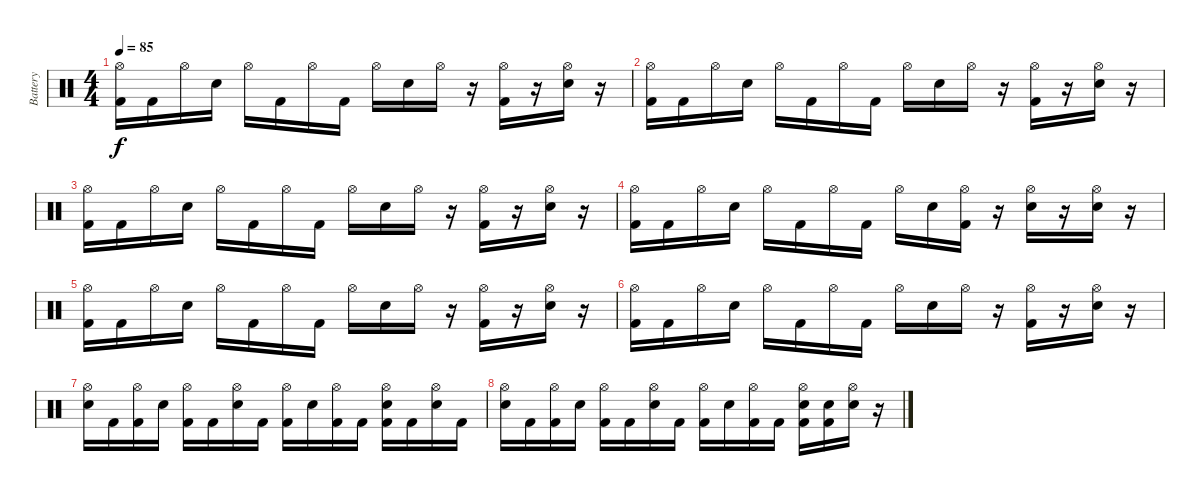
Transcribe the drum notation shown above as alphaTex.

\track ("Battery" "Battery") {instrument percussion}
\staff {score}
\articulation defaults
\ts (4 4)
\tempo 85
\clef neutral
\ks c
("Hi-Hat (open)" "Kick (hit) 2").16{dy f} "Kick (hit) 2".16 "Hi-Hat (open)".16 "Snare (hit) 2".16 "Hi-Hat (open)".16 "Kick (hit) 2".16 "Hi-Hat (open)".16 "Kick (hit) 2".16 "Hi-Hat (open)".16 "Snare (hit) 2".16 "Hi-Hat (open)".16 r.16 ("Hi-Hat (open)" "Kick (hit) 2").16 r.16 ("Snare (hit) 2" "Hi-Hat (open)").16 r.16 |
("Hi-Hat (open)" "Kick (hit) 2").16 "Kick (hit) 2".16 "Hi-Hat (open)".16 "Snare (hit) 2".16 "Hi-Hat (open)".16 "Kick (hit) 2".16 "Hi-Hat (open)".16 "Kick (hit) 2".16 "Hi-Hat (open)".16 "Snare (hit) 2".16 "Hi-Hat (open)".16 r.16 ("Hi-Hat (open)" "Kick (hit) 2").16 r.16 ("Snare (hit) 2" "Hi-Hat (open)").16 r.16 |
("Hi-Hat (open)" "Kick (hit) 2").16 "Kick (hit) 2".16 "Hi-Hat (open)".16 "Snare (hit) 2".16 "Hi-Hat (open)".16 "Kick (hit) 2".16 "Hi-Hat (open)".16 "Kick (hit) 2".16 "Hi-Hat (open)".16 "Snare (hit) 2".16 "Hi-Hat (open)".16 r.16 ("Hi-Hat (open)" "Kick (hit) 2").16 r.16 ("Snare (hit) 2" "Hi-Hat (open)").16 r.16 |
("Hi-Hat (open)" "Kick (hit) 2").16 "Kick (hit) 2".16 "Hi-Hat (open)".16 "Snare (hit) 2".16 "Hi-Hat (open)".16 "Kick (hit) 2".16 "Hi-Hat (open)".16 "Kick (hit) 2".16 "Hi-Hat (open)".16 "Snare (hit) 2".16 ("Hi-Hat (open)" "Kick (hit) 2").16 r.16 ("Snare (hit) 2" "Hi-Hat (open)").16 r.16 ("Snare (hit) 2" "Hi-Hat (open)").16 r.16 |
("Hi-Hat (open)" "Kick (hit) 2").16 "Kick (hit) 2".16 "Hi-Hat (open)".16 "Snare (hit) 2".16 "Hi-Hat (open)".16 "Kick (hit) 2".16 "Hi-Hat (open)".16 "Kick (hit) 2".16 "Hi-Hat (open)".16 "Snare (hit) 2".16 "Hi-Hat (open)".16 r.16 ("Hi-Hat (open)" "Kick (hit) 2").16 r.16 ("Snare (hit) 2" "Hi-Hat (open)").16 r.16 |
("Hi-Hat (open)" "Kick (hit) 2").16 "Kick (hit) 2".16 "Hi-Hat (open)".16 "Snare (hit) 2".16 "Hi-Hat (open)".16 "Kick (hit) 2".16 "Hi-Hat (open)".16 "Kick (hit) 2".16 "Hi-Hat (open)".16 "Snare (hit) 2".16 "Hi-Hat (open)".16 r.16 ("Hi-Hat (open)" "Kick (hit) 2").16 r.16 ("Snare (hit) 2" "Hi-Hat (open)").16 r.16 |
("Snare (hit) 2" "Hi-Hat (open)").16 "Kick (hit) 2".16 ("Hi-Hat (open)" "Kick (hit) 2").16 "Snare (hit) 2".16 ("Hi-Hat (open)" "Kick (hit) 2").16 "Kick (hit) 2".16 ("Snare (hit) 2" "Hi-Hat (open)").16 "Kick (hit) 2".16 ("Hi-Hat (open)" "Kick (hit) 2").16 "Snare (hit) 2".16 ("Hi-Hat (open)" "Kick (hit) 2").16 "Kick (hit) 2".16 ("Snare (hit) 2" "Hi-Hat (open)" "Kick (hit) 2").16 "Kick (hit) 2".16 ("Snare (hit) 2" "Hi-Hat (open)").16 "Kick (hit) 2".16 |
("Snare (hit) 2" "Hi-Hat (open)").16 "Kick (hit) 2".16 ("Hi-Hat (open)" "Kick (hit) 2").16 "Snare (hit) 2".16 ("Hi-Hat (open)" "Kick (hit) 2").16 "Kick (hit) 2".16 ("Snare (hit) 2" "Hi-Hat (open)").16 "Kick (hit) 2".16 ("Hi-Hat (open)" "Kick (hit) 2").16 "Snare (hit) 2".16 ("Hi-Hat (open)" "Kick (hit) 2").16 "Kick (hit) 2".16 ("Snare (hit) 2" "Hi-Hat (open)" "Kick (hit) 2").16 ("Snare (hit) 2" "Kick (hit) 2").16 ("Snare (hit) 2" "Hi-Hat (open)").16 r.16
